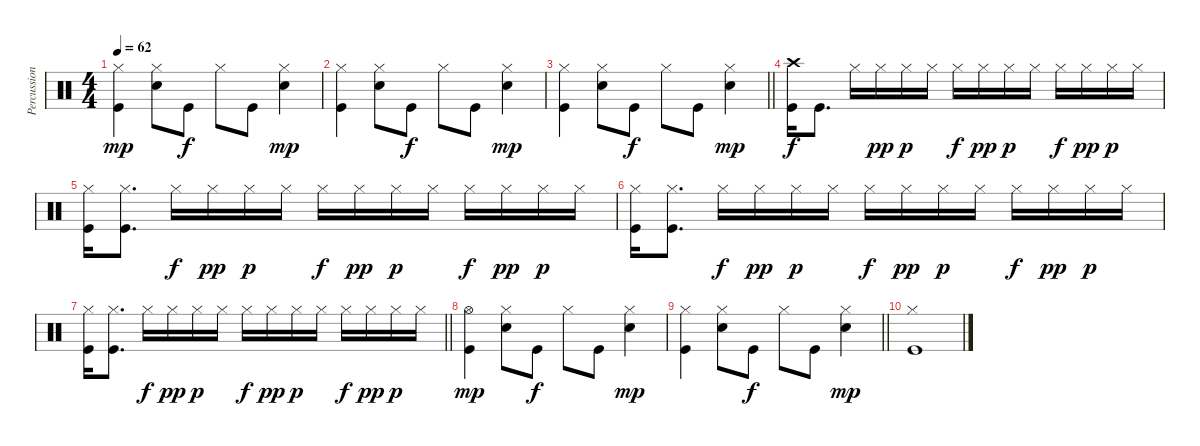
\track ("Percussion" "Percussion") {instrument percussion}
\staff {score}
\articulation defaults
\ts (4 4)
\tempo 62
\clef neutral
\ks c
("Hi-Hat (closed)" "Kick (hit)").4{dy mp} ("Hi-Hat (closed)" "Snare (hit) 2").8 "Kick (hit)".8{dy f} "Hi-Hat (closed)".8 "Kick (hit)".8 ("Hi-Hat (closed)" "Snare (hit) 2").4{dy mp} |
("Hi-Hat (closed)" "Kick (hit)").4 ("Hi-Hat (closed)" "Snare (hit) 2").8 "Kick (hit)".8{dy f} "Hi-Hat (closed)".8 "Kick (hit)".8 ("Hi-Hat (closed)" "Snare (hit) 2").4{dy mp} |
\barLineRight lightlight
("Hi-Hat (closed)" "Kick (hit)").4 ("Hi-Hat (closed)" "Snare (hit) 2").8 "Kick (hit)".8{dy f} "Hi-Hat (closed)".8 "Kick (hit)".8 ("Hi-Hat (closed)" "Snare (hit) 2").4{dy mp} |
("Crash high (hit)" "Kick (hit)").16{dy f} "Kick (hit)".8{d} "Hi-Hat (closed)".16 "Hi-Hat (closed)".16{dy pp} "Hi-Hat (closed)".16{dy p} "Hi-Hat (closed)".16 "Hi-Hat (closed)".16{dy f} "Hi-Hat (closed)".16{dy pp} "Hi-Hat (closed)".16{dy p} "Hi-Hat (closed)".16 "Hi-Hat (closed)".16{dy f} "Hi-Hat (closed)".16{dy pp} "Hi-Hat (closed)".16{dy p} "Hi-Hat (closed)".16 |
("Hi-Hat (closed)" "Kick (hit)").16 ("Hi-Hat (closed)" "Kick (hit)").8{d} "Hi-Hat (closed)".16{dy f} "Hi-Hat (closed)".16{dy pp} "Hi-Hat (closed)".16{dy p} "Hi-Hat (closed)".16 "Hi-Hat (closed)".16{dy f} "Hi-Hat (closed)".16{dy pp} "Hi-Hat (closed)".16{dy p} "Hi-Hat (closed)".16 "Hi-Hat (closed)".16{dy f} "Hi-Hat (closed)".16{dy pp} "Hi-Hat (closed)".16{dy p} "Hi-Hat (closed)".16 |
("Hi-Hat (closed)" "Kick (hit)").16 ("Hi-Hat (closed)" "Kick (hit)").8{d} "Hi-Hat (closed)".16{dy f} "Hi-Hat (closed)".16{dy pp} "Hi-Hat (closed)".16{dy p} "Hi-Hat (closed)".16 "Hi-Hat (closed)".16{dy f} "Hi-Hat (closed)".16{dy pp} "Hi-Hat (closed)".16{dy p} "Hi-Hat (closed)".16 "Hi-Hat (closed)".16{dy f} "Hi-Hat (closed)".16{dy pp} "Hi-Hat (closed)".16{dy p} "Hi-Hat (closed)".16 |
\barLineRight lightlight
("Hi-Hat (closed)" "Kick (hit)").16 ("Hi-Hat (closed)" "Kick (hit)").8{d} "Hi-Hat (closed)".16{dy f} "Hi-Hat (closed)".16{dy pp} "Hi-Hat (closed)".16{dy p} "Hi-Hat (closed)".16 "Hi-Hat (closed)".16{dy f} "Hi-Hat (closed)".16{dy pp} "Hi-Hat (closed)".16{dy p} "Hi-Hat (closed)".16 "Hi-Hat (closed)".16{dy f} "Hi-Hat (closed)".16{dy pp} "Hi-Hat (closed)".16{dy p} "Hi-Hat (closed)".16 |
("Hi-Hat (open)" "Kick (hit)").4{dy mp} ("Hi-Hat (closed)" "Snare (hit) 2").8 "Kick (hit)".8{dy f} "Hi-Hat (closed)".8 "Kick (hit)".8 ("Hi-Hat (closed)" "Snare (hit) 2").4{dy mp} |
\barLineRight lightlight
("Hi-Hat (closed)" "Kick (hit)").4 ("Hi-Hat (closed)" "Snare (hit) 2").8 "Kick (hit)".8{dy f} "Hi-Hat (closed)".8 "Kick (hit)".8 ("Hi-Hat (closed)" "Snare (hit) 2").4{dy mp} |
("Hi-Hat (closed)" "Kick (hit)").1
